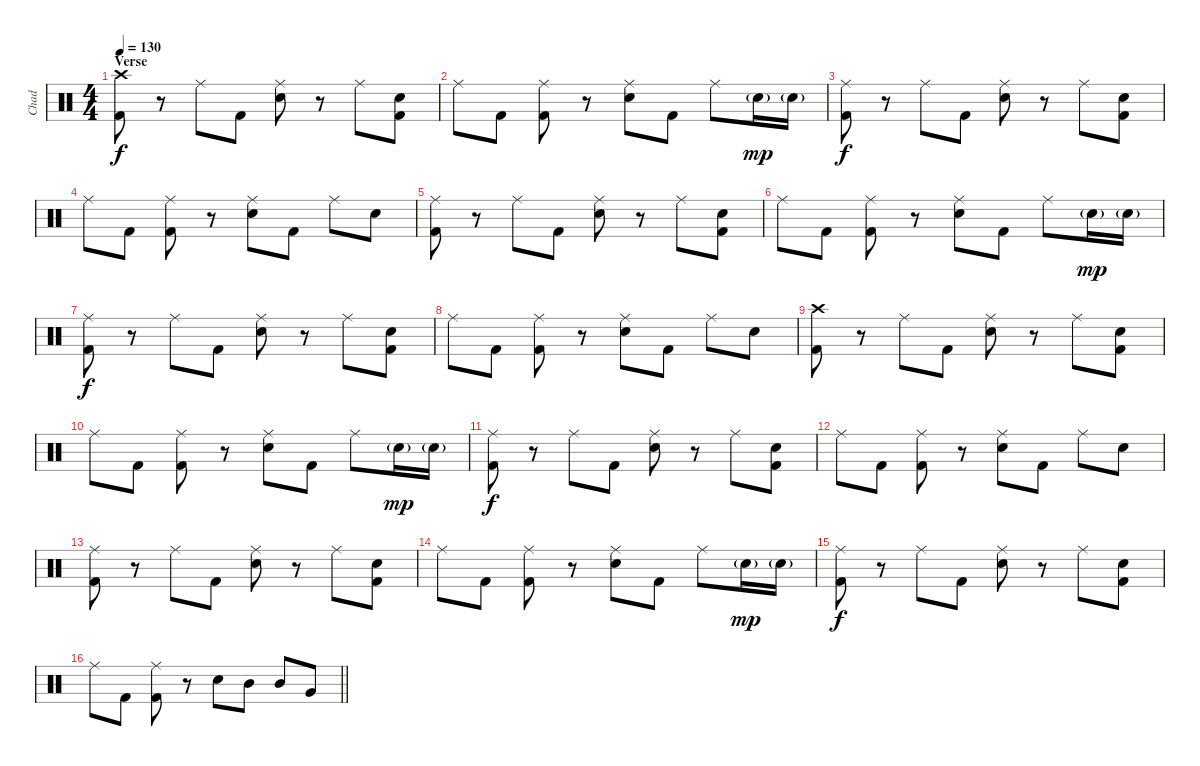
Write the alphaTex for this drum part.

\track ("Chad" "Chad") {instrument percussion}
\staff {score}
\articulation defaults
\ts (4 4)
\section ("" "Verse")
\tempo 130
\clef neutral
\ks c
("Crash high (hit)" "Kick (hit) 2").8{dy f} r.8 "Ride (middle)".8 "Kick (hit) 2".8 ("Ride (middle)" "Electric Snare (hit)").8 r.8 "Ride (middle)".8 ("Electric Snare (hit)" "Kick (hit) 2").8 |
"Ride (middle)".8 "Kick (hit) 2".8 ("Ride (middle)" "Kick (hit) 2").8 r.8 ("Ride (middle)" "Electric Snare (hit)").8 "Kick (hit) 2".8 "Ride (middle)".8 "Electric Snare (hit)"{g}.16{dy mp} "Electric Snare (hit)"{g}.16 |
("Ride (middle)" "Kick (hit) 2").8{dy f} r.8 "Ride (middle)".8 "Kick (hit) 2".8 ("Ride (middle)" "Electric Snare (hit)").8 r.8 "Ride (middle)".8 ("Electric Snare (hit)" "Kick (hit) 2").8 |
"Ride (middle)".8 "Kick (hit) 2".8 ("Ride (middle)" "Kick (hit) 2").8 r.8 ("Ride (middle)" "Electric Snare (hit)").8 "Kick (hit) 2".8 "Ride (middle)".8 "Electric Snare (hit)".8 |
("Ride (middle)" "Kick (hit) 2").8 r.8 "Ride (middle)".8 "Kick (hit) 2".8 ("Ride (middle)" "Electric Snare (hit)").8 r.8 "Ride (middle)".8 ("Electric Snare (hit)" "Kick (hit) 2").8 |
"Ride (middle)".8 "Kick (hit) 2".8 ("Ride (middle)" "Kick (hit) 2").8 r.8 ("Ride (middle)" "Electric Snare (hit)").8 "Kick (hit) 2".8 "Ride (middle)".8 "Electric Snare (hit)"{g}.16{dy mp} "Electric Snare (hit)"{g}.16 |
("Ride (middle)" "Kick (hit) 2").8{dy f} r.8 "Ride (middle)".8 "Kick (hit) 2".8 ("Ride (middle)" "Electric Snare (hit)").8 r.8 "Ride (middle)".8 ("Electric Snare (hit)" "Kick (hit) 2").8 |
"Ride (middle)".8 "Kick (hit) 2".8 ("Ride (middle)" "Kick (hit) 2").8 r.8 ("Ride (middle)" "Electric Snare (hit)").8 "Kick (hit) 2".8 "Ride (middle)".8 "Electric Snare (hit)".8 |
("Crash high (hit)" "Kick (hit) 2").8 r.8 "Ride (middle)".8 "Kick (hit) 2".8 ("Ride (middle)" "Electric Snare (hit)").8 r.8 "Ride (middle)".8 ("Electric Snare (hit)" "Kick (hit) 2").8 |
"Ride (middle)".8 "Kick (hit) 2".8 ("Ride (middle)" "Kick (hit) 2").8 r.8 ("Ride (middle)" "Electric Snare (hit)").8 "Kick (hit) 2".8 "Ride (middle)".8 "Electric Snare (hit)"{g}.16{dy mp} "Electric Snare (hit)"{g}.16 |
("Ride (middle)" "Kick (hit) 2").8{dy f} r.8 "Ride (middle)".8 "Kick (hit) 2".8 ("Ride (middle)" "Electric Snare (hit)").8 r.8 "Ride (middle)".8 ("Electric Snare (hit)" "Kick (hit) 2").8 |
"Ride (middle)".8 "Kick (hit) 2".8 ("Ride (middle)" "Kick (hit) 2").8 r.8 ("Ride (middle)" "Electric Snare (hit)").8 "Kick (hit) 2".8 "Ride (middle)".8 "Electric Snare (hit)".8 |
("Ride (middle)" "Kick (hit) 2").8 r.8 "Ride (middle)".8 "Kick (hit) 2".8 ("Ride (middle)" "Electric Snare (hit)").8 r.8 "Ride (middle)".8 ("Electric Snare (hit)" "Kick (hit) 2").8 |
"Ride (middle)".8 "Kick (hit) 2".8 ("Ride (middle)" "Kick (hit) 2").8 r.8 ("Ride (middle)" "Electric Snare (hit)").8 "Kick (hit) 2".8 "Ride (middle)".8 "Electric Snare (hit)"{g}.16{dy mp} "Electric Snare (hit)"{g}.16 |
("Ride (middle)" "Kick (hit) 2").8{dy f} r.8 "Ride (middle)".8 "Kick (hit) 2".8 ("Ride (middle)" "Electric Snare (hit)").8 r.8 "Ride (middle)".8 ("Electric Snare (hit)" "Kick (hit) 2").8 |
\barLineRight lightlight "Ride (middle)".8 "Kick (hit) 2".8
("Ride (middle)" "Kick (hit) 2").8 r.8 "Electric Snare (hit)".8 "Mid Tom (hit)".8 "Mid Tom (hit)".8 "Very Low Tom (hit)".8
